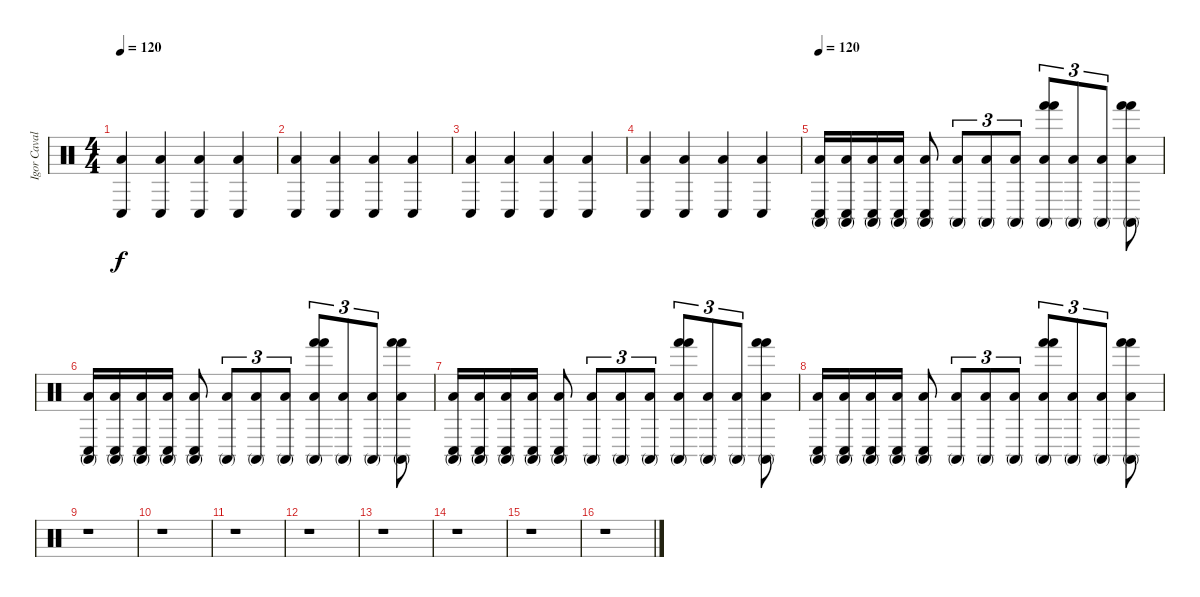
\track ("Igor Cavalera" "Igor Caval") {instrument percussion}
\staff {score}
\articulation defaults
\ts (4 4)
\tempo 120
\tempo 135
\tempo 120
\clef neutral
\ks c
("Conga low (hit)" "Low Floor Tom (hit)").4{dy f} ("Conga low (hit)" "Low Floor Tom (hit)").4 ("Conga low (hit)" "Low Floor Tom (hit)").4 ("Conga low (hit)" "Low Floor Tom (hit)").4 |
("Conga low (hit)" "Low Floor Tom (hit)").4 ("Conga low (hit)" "Low Floor Tom (hit)").4 ("Conga low (hit)" "Low Floor Tom (hit)").4 ("Conga low (hit)" "Low Floor Tom (hit)").4 |
("Conga low (hit)" "Low Floor Tom (hit)").4 ("Conga low (hit)" "Low Floor Tom (hit)").4 ("Conga low (hit)" "Low Floor Tom (hit)").4 ("Conga low (hit)" "Low Floor Tom (hit)").4 |
("Conga low (hit)" "Low Floor Tom (hit)").4 ("Conga low (hit)" "Low Floor Tom (hit)").4 ("Conga low (hit)" "Low Floor Tom (hit)").4 ("Conga low (hit)" "Low Floor Tom (hit)").4 |
\tempo 120
("Low Floor Tom (hit)" "Conga high (mute)" "Conga low (hit)").16{volume 16} ("Low Floor Tom (hit)" "Conga high (mute)" "Conga low (hit)").16 ("Low Floor Tom (hit)" "Conga high (mute)" "Conga low (hit)").16 ("Low Floor Tom (hit)" "Conga high (mute)" "Conga low (hit)").16 ("Low Floor Tom (hit)" "Conga high (mute)" "Conga low (hit)").8 ("Low Floor Tom (hit)" "Conga high (mute)").8{tu (3 2)} ("Low Floor Tom (hit)" "Conga high (mute)").8{tu (3 2)} ("Low Floor Tom (hit)" "Conga high (mute)").8{tu (3 2)} ("Hand (hit)" "Low Floor Tom (hit)" "Conga high (mute)" "Hand (hit)").8{tu (3 2)} ("Low Floor Tom (hit)" "Conga high (mute)").8{tu (3 2)} ("Low Floor Tom (hit)" "Conga high (mute)").8{tu (3 2)} ("Hand (hit)" "Low Floor Tom (hit)" "Conga high (mute)" "Hand (hit)").8 |
("Low Floor Tom (hit)" "Conga high (mute)" "Conga low (hit)").16{volume 16} ("Low Floor Tom (hit)" "Conga high (mute)" "Conga low (hit)").16 ("Low Floor Tom (hit)" "Conga high (mute)" "Conga low (hit)").16 ("Low Floor Tom (hit)" "Conga high (mute)" "Conga low (hit)").16 ("Low Floor Tom (hit)" "Conga high (mute)" "Conga low (hit)").8 ("Low Floor Tom (hit)" "Conga high (mute)").8{tu (3 2)} ("Low Floor Tom (hit)" "Conga high (mute)").8{tu (3 2)} ("Low Floor Tom (hit)" "Conga high (mute)").8{tu (3 2)} ("Hand (hit)" "Low Floor Tom (hit)" "Conga high (mute)" "Hand (hit)").8{tu (3 2)} ("Low Floor Tom (hit)" "Conga high (mute)").8{tu (3 2)} ("Low Floor Tom (hit)" "Conga high (mute)").8{tu (3 2)} ("Hand (hit)" "Low Floor Tom (hit)" "Conga high (mute)" "Hand (hit)").8 |
("Low Floor Tom (hit)" "Conga high (mute)" "Conga low (hit)").16{volume 16} ("Low Floor Tom (hit)" "Conga high (mute)" "Conga low (hit)").16 ("Low Floor Tom (hit)" "Conga high (mute)" "Conga low (hit)").16 ("Low Floor Tom (hit)" "Conga high (mute)" "Conga low (hit)").16 ("Low Floor Tom (hit)" "Conga high (mute)" "Conga low (hit)").8 ("Low Floor Tom (hit)" "Conga high (mute)").8{tu (3 2)} ("Low Floor Tom (hit)" "Conga high (mute)").8{tu (3 2)} ("Low Floor Tom (hit)" "Conga high (mute)").8{tu (3 2)} ("Hand (hit)" "Low Floor Tom (hit)" "Conga high (mute)" "Hand (hit)").8{tu (3 2)} ("Low Floor Tom (hit)" "Conga high (mute)").8{tu (3 2)} ("Low Floor Tom (hit)" "Conga high (mute)").8{tu (3 2)} ("Hand (hit)" "Low Floor Tom (hit)" "Conga high (mute)" "Hand (hit)").8 |
("Low Floor Tom (hit)" "Conga high (mute)" "Conga low (hit)").16{volume 16} ("Low Floor Tom (hit)" "Conga high (mute)" "Conga low (hit)").16 ("Low Floor Tom (hit)" "Conga high (mute)" "Conga low (hit)").16 ("Low Floor Tom (hit)" "Conga high (mute)" "Conga low (hit)").16 ("Low Floor Tom (hit)" "Conga high (mute)" "Conga low (hit)").8 ("Low Floor Tom (hit)" "Conga high (mute)").8{tu (3 2)} ("Low Floor Tom (hit)" "Conga high (mute)").8{tu (3 2)} ("Low Floor Tom (hit)" "Conga high (mute)").8{tu (3 2)} ("Hand (hit)" "Low Floor Tom (hit)" "Conga high (mute)" "Hand (hit)").8{tu (3 2)} ("Low Floor Tom (hit)" "Conga high (mute)").8{tu (3 2)} ("Low Floor Tom (hit)" "Conga high (mute)").8{tu (3 2)} ("Hand (hit)" "Low Floor Tom (hit)" "Conga high (mute)" "Hand (hit)").8 |
r.1 |
r.1 |
r.1 |
r.1 |
r.1 |
r.1 |
r.1 |
r.1
